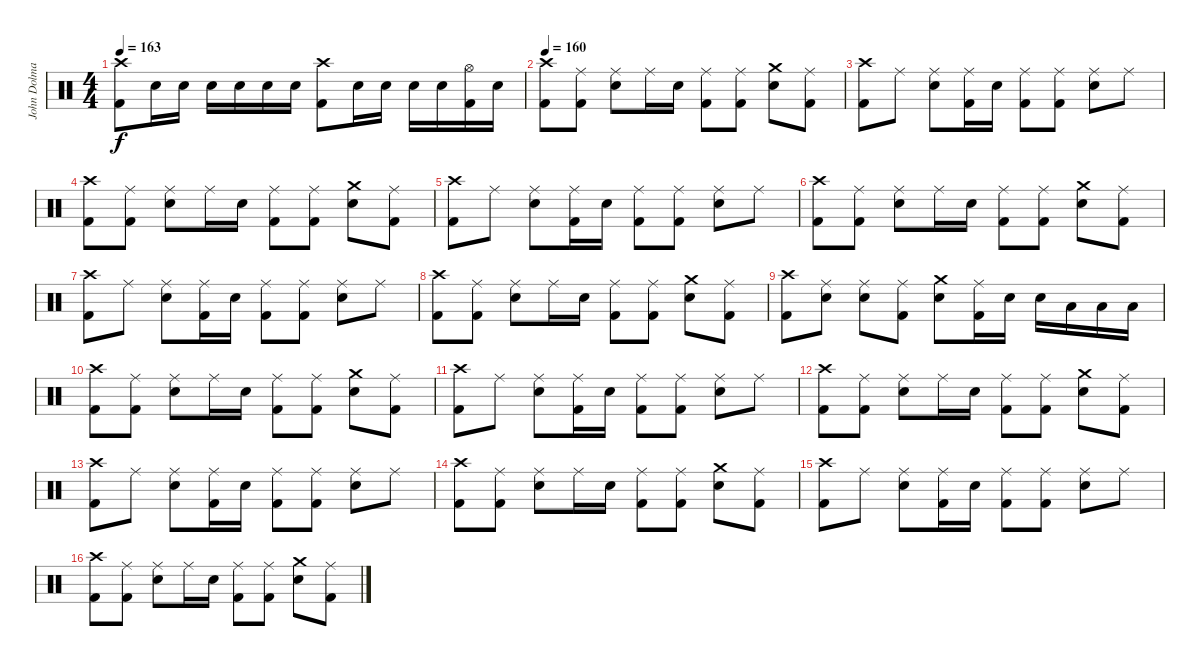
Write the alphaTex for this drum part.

\track ("John Dolmayan(Drums)" "John Dolma") {instrument percussion}
\staff {score}
\articulation defaults
\ts (4 4)
\tempo 163
\clef neutral
\ks c
("Crash high (hit)" "Kick (hit) 2").8{dy f} "Snare (hit) 2".16 "Snare (hit) 2".16 "Snare (hit) 2".16 "Snare (hit) 2".16 "Snare (hit) 2".16 "Snare (hit) 2".16 ("Crash high (hit)" "Kick (hit) 2").8 "Snare (hit) 2".16 "Snare (hit) 2".16 "Snare (hit) 2".16 "Snare (hit) 2".16 ("Hi-Hat (open)" "Kick (hit) 2").16 "Snare (hit) 2".16 |
\tempo 160
("Crash high (hit)" "Kick (hit) 2").8 ("Ride (middle)" "Kick (hit) 2").8 ("Ride (middle)" "Snare (hit) 2").8 "Ride (middle)".16 "Snare (hit) 2".16 ("Ride (middle)" "Kick (hit) 2").8 ("Ride (middle)" "Kick (hit) 2").8 ("Crash medium (hit)" "Snare (hit) 2").8 ("Ride (middle)" "Kick (hit) 2").8 |
("Crash high (hit)" "Kick (hit) 2").8 "Ride (middle)".8 ("Ride (middle)" "Snare (hit) 2").8 ("Ride (middle)" "Kick (hit) 2").16 "Snare (hit) 2".16 ("Ride (middle)" "Kick (hit) 2").8 ("Ride (middle)" "Kick (hit) 2").8 ("Ride (middle)" "Snare (hit) 2").8 "Ride (middle)".8 |
("Crash high (hit)" "Kick (hit) 2").8 ("Ride (middle)" "Kick (hit) 2").8 ("Ride (middle)" "Snare (hit) 2").8 "Ride (middle)".16 "Snare (hit) 2".16 ("Ride (middle)" "Kick (hit) 2").8 ("Ride (middle)" "Kick (hit) 2").8 ("Crash medium (hit)" "Snare (hit) 2").8 ("Ride (middle)" "Kick (hit) 2").8 |
("Crash high (hit)" "Kick (hit) 2").8 "Ride (middle)".8 ("Ride (middle)" "Snare (hit) 2").8 ("Ride (middle)" "Kick (hit) 2").16 "Snare (hit) 2".16 ("Ride (middle)" "Kick (hit) 2").8 ("Ride (middle)" "Kick (hit) 2").8 ("Ride (middle)" "Snare (hit) 2").8 "Ride (middle)".8 |
("Crash high (hit)" "Kick (hit) 2").8 ("Ride (middle)" "Kick (hit) 2").8 ("Ride (middle)" "Snare (hit) 2").8 "Ride (middle)".16 "Snare (hit) 2".16 ("Ride (middle)" "Kick (hit) 2").8 ("Ride (middle)" "Kick (hit) 2").8 ("Crash medium (hit)" "Snare (hit) 2").8 ("Ride (middle)" "Kick (hit) 2").8 |
("Crash high (hit)" "Kick (hit) 2").8 "Ride (middle)".8 ("Ride (middle)" "Snare (hit) 2").8 ("Ride (middle)" "Kick (hit) 2").16 "Snare (hit) 2".16 ("Ride (middle)" "Kick (hit) 2").8 ("Ride (middle)" "Kick (hit) 2").8 ("Ride (middle)" "Snare (hit) 2").8 "Ride (middle)".8 |
("Crash high (hit)" "Kick (hit) 2").8 ("Ride (middle)" "Kick (hit) 2").8 ("Ride (middle)" "Snare (hit) 2").8 "Ride (middle)".16 "Snare (hit) 2".16 ("Ride (middle)" "Kick (hit) 2").8 ("Ride (middle)" "Kick (hit) 2").8 ("Crash medium (hit)" "Snare (hit) 2").8 ("Ride (middle)" "Kick (hit) 2").8 |
("Crash high (hit)" "Kick (hit) 2").8 ("Ride (middle)" "Snare (hit) 2").8 ("Ride (middle)" "Snare (hit) 2").8 ("Ride (middle)" "Kick (hit) 2").8 ("Crash medium (hit)" "Snare (hit) 2").8 ("Ride (middle)" "Kick (hit) 2").16 "Snare (hit) 2".16 "Snare (hit) 2".16 "Low Tom (hit)".16 "Low Tom (hit)".16 "Low Tom (hit)".16 |
("Crash high (hit)" "Kick (hit) 2").8 ("Ride (middle)" "Kick (hit) 2").8 ("Ride (middle)" "Snare (hit) 2").8 "Ride (middle)".16 "Snare (hit) 2".16 ("Ride (middle)" "Kick (hit) 2").8 ("Ride (middle)" "Kick (hit) 2").8 ("Crash medium (hit)" "Snare (hit) 2").8 ("Ride (middle)" "Kick (hit) 2").8 |
("Crash high (hit)" "Kick (hit) 2").8 "Ride (middle)".8 ("Ride (middle)" "Snare (hit) 2").8 ("Ride (middle)" "Kick (hit) 2").16 "Snare (hit) 2".16 ("Ride (middle)" "Kick (hit) 2").8 ("Ride (middle)" "Kick (hit) 2").8 ("Ride (middle)" "Snare (hit) 2").8 "Ride (middle)".8 |
("Crash high (hit)" "Kick (hit) 2").8 ("Ride (middle)" "Kick (hit) 2").8 ("Ride (middle)" "Snare (hit) 2").8 "Ride (middle)".16 "Snare (hit) 2".16 ("Ride (middle)" "Kick (hit) 2").8 ("Ride (middle)" "Kick (hit) 2").8 ("Crash medium (hit)" "Snare (hit) 2").8 ("Ride (middle)" "Kick (hit) 2").8 |
("Crash high (hit)" "Kick (hit) 2").8 "Ride (middle)".8 ("Ride (middle)" "Snare (hit) 2").8 ("Ride (middle)" "Kick (hit) 2").16 "Snare (hit) 2".16 ("Ride (middle)" "Kick (hit) 2").8 ("Ride (middle)" "Kick (hit) 2").8 ("Ride (middle)" "Snare (hit) 2").8 "Ride (middle)".8 |
("Crash high (hit)" "Kick (hit) 2").8 ("Ride (middle)" "Kick (hit) 2").8 ("Ride (middle)" "Snare (hit) 2").8 "Ride (middle)".16 "Snare (hit) 2".16 ("Ride (middle)" "Kick (hit) 2").8 ("Ride (middle)" "Kick (hit) 2").8 ("Crash medium (hit)" "Snare (hit) 2").8 ("Ride (middle)" "Kick (hit) 2").8 |
("Crash high (hit)" "Kick (hit) 2").8 "Ride (middle)".8 ("Ride (middle)" "Snare (hit) 2").8 ("Ride (middle)" "Kick (hit) 2").16 "Snare (hit) 2".16 ("Ride (middle)" "Kick (hit) 2").8 ("Ride (middle)" "Kick (hit) 2").8 ("Ride (middle)" "Snare (hit) 2").8 "Ride (middle)".8 |
("Crash high (hit)" "Kick (hit) 2").8 ("Ride (middle)" "Kick (hit) 2").8 ("Ride (middle)" "Snare (hit) 2").8 "Ride (middle)".16 "Snare (hit) 2".16 ("Ride (middle)" "Kick (hit) 2").8 ("Ride (middle)" "Kick (hit) 2").8 ("Crash medium (hit)" "Snare (hit) 2").8 ("Ride (middle)" "Kick (hit) 2").8
